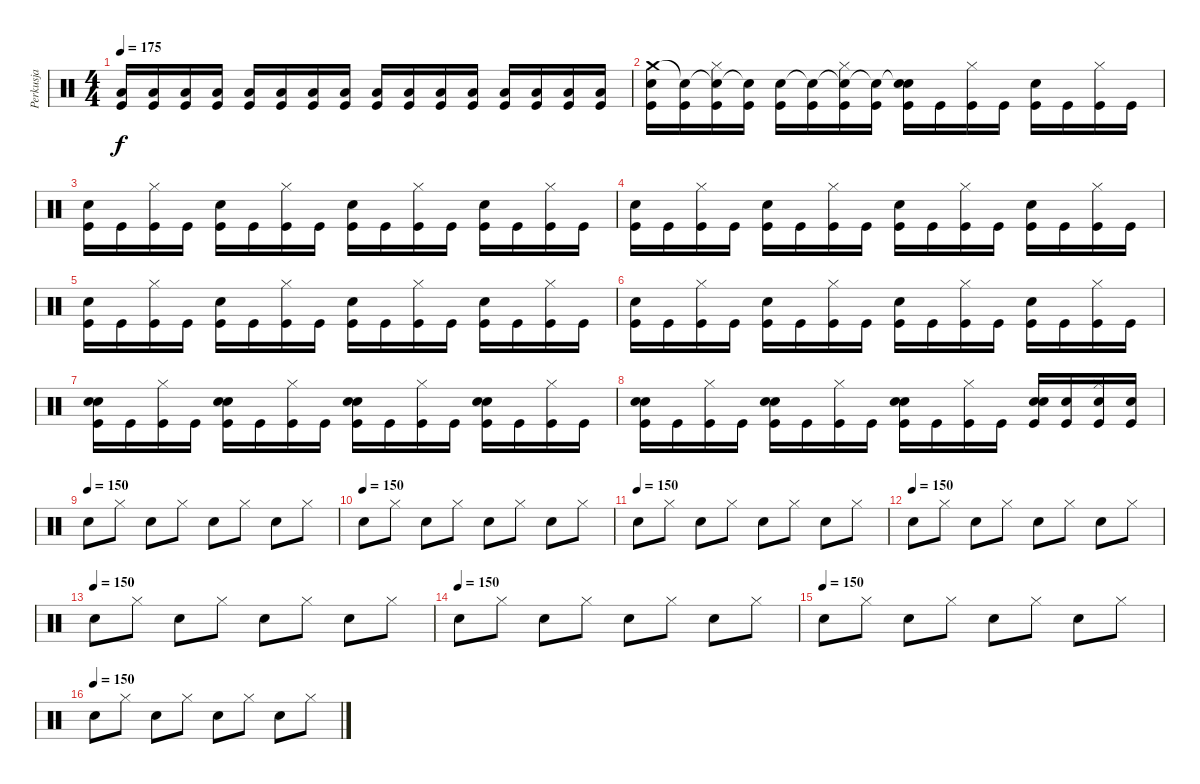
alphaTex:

\track ("Perkusja" "Perkusja") {instrument percussion}
\staff {score}
\articulation defaults
\ts (4 4)
\tempo 175
\clef neutral
\ks c
("Low Tom (hit)" "Kick (hit)").16{dy f} ("Low Tom (hit)" "Kick (hit)").16 ("Low Tom (hit)" "Kick (hit)").16 ("Low Tom (hit)" "Kick (hit)").16 ("Low Tom (hit)" "Kick (hit)").16 ("Low Tom (hit)" "Kick (hit)").16 ("Low Tom (hit)" "Kick (hit)").16 ("Low Tom (hit)" "Kick (hit)").16 ("Low Tom (hit)" "Kick (hit)").16 ("Low Tom (hit)" "Kick (hit)").16 ("Low Tom (hit)" "Kick (hit)").16 ("Low Tom (hit)" "Kick (hit)").16 ("Low Tom (hit)" "Kick (hit)").16 ("Low Tom (hit)" "Kick (hit)").16 ("Low Tom (hit)" "Kick (hit)").16 ("Low Tom (hit)" "Kick (hit)").16 |
("Crash medium (hit)" "Snare (hit) 2" "Kick (hit)").16 ("Snare (hit)"{t} "Kick (hit)").16 ("Snare (hit)"{t} "Hi-Hat (closed)" "Kick (hit)").16 ("Snare (hit)"{t} "Kick (hit)").16 ("Snare (hit) 2" "Kick (hit)").16 ("Snare (hit)"{t} "Kick (hit)").16 ("Snare (hit)"{t} "Hi-Hat (closed)" "Kick (hit)").16 ("Snare (hit)"{t} "Kick (hit)").16 ("Snare (hit)"{t} "Snare (hit) 2" "Kick (hit)").16 "Kick (hit)".16 ("Hi-Hat (closed)" "Kick (hit)").16 "Kick (hit)".16 ("Snare (hit) 2" "Kick (hit)").16 "Kick (hit)".16 ("Hi-Hat (closed)" "Kick (hit)").16 "Kick (hit)".16 |
("Snare (hit) 2" "Kick (hit)").16 "Kick (hit)".16 ("Hi-Hat (closed)" "Kick (hit)").16 "Kick (hit)".16 ("Snare (hit) 2" "Kick (hit)").16 "Kick (hit)".16 ("Hi-Hat (closed)" "Kick (hit)").16 "Kick (hit)".16 ("Snare (hit) 2" "Kick (hit)").16 "Kick (hit)".16 ("Hi-Hat (closed)" "Kick (hit)").16 "Kick (hit)".16 ("Snare (hit) 2" "Kick (hit)").16 "Kick (hit)".16 ("Hi-Hat (closed)" "Kick (hit)").16 "Kick (hit)".16 |
("Snare (hit) 2" "Kick (hit)").16 "Kick (hit)".16 ("Hi-Hat (closed)" "Kick (hit)").16 "Kick (hit)".16 ("Snare (hit) 2" "Kick (hit)").16 "Kick (hit)".16 ("Hi-Hat (closed)" "Kick (hit)").16 "Kick (hit)".16 ("Snare (hit) 2" "Kick (hit)").16 "Kick (hit)".16 ("Hi-Hat (closed)" "Kick (hit)").16 "Kick (hit)".16 ("Snare (hit) 2" "Kick (hit)").16 "Kick (hit)".16 ("Hi-Hat (closed)" "Kick (hit)").16 "Kick (hit)".16 |
("Snare (hit) 2" "Kick (hit)").16 "Kick (hit)".16 ("Hi-Hat (closed)" "Kick (hit)").16 "Kick (hit)".16 ("Snare (hit) 2" "Kick (hit)").16 "Kick (hit)".16 ("Hi-Hat (closed)" "Kick (hit)").16 "Kick (hit)".16 ("Snare (hit) 2" "Kick (hit)").16 "Kick (hit)".16 ("Hi-Hat (closed)" "Kick (hit)").16 "Kick (hit)".16 ("Snare (hit) 2" "Kick (hit)").16 "Kick (hit)".16 ("Hi-Hat (closed)" "Kick (hit)").16 "Kick (hit)".16 |
("Snare (hit) 2" "Kick (hit)").16 "Kick (hit)".16 ("Hi-Hat (closed)" "Kick (hit)").16 "Kick (hit)".16 ("Snare (hit) 2" "Kick (hit)").16 "Kick (hit)".16 ("Hi-Hat (closed)" "Kick (hit)").16 "Kick (hit)".16 ("Snare (hit) 2" "Kick (hit)").16 "Kick (hit)".16 ("Hi-Hat (closed)" "Kick (hit)").16 "Kick (hit)".16 ("Snare (hit) 2" "Kick (hit)").16 "Kick (hit)".16 ("Hi-Hat (closed)" "Kick (hit)").16 "Kick (hit)".16 |
("Snare (hit) 2" "Kick (hit)" "Electric Snare (hit)").16 "Kick (hit)".16 ("Hi-Hat (closed)" "Kick (hit)").16 "Kick (hit)".16 ("Snare (hit) 2" "Kick (hit)" "Electric Snare (hit)").16 "Kick (hit)".16 ("Hi-Hat (closed)" "Kick (hit)").16 "Kick (hit)".16 ("Snare (hit) 2" "Kick (hit)" "Electric Snare (hit)").16 "Kick (hit)".16 ("Hi-Hat (closed)" "Kick (hit)").16 "Kick (hit)".16 ("Snare (hit) 2" "Kick (hit)" "Electric Snare (hit)").16 "Kick (hit)".16 ("Hi-Hat (closed)" "Kick (hit)").16 "Kick (hit)".16 |
("Snare (hit) 2" "Kick (hit)" "Electric Snare (hit)").16 "Kick (hit)".16 ("Hi-Hat (closed)" "Kick (hit)").16 "Kick (hit)".16 ("Snare (hit) 2" "Kick (hit)" "Electric Snare (hit)").16 "Kick (hit)".16 ("Hi-Hat (closed)" "Kick (hit)").16 "Kick (hit)".16 ("Snare (hit) 2" "Kick (hit)" "Electric Snare (hit)").16 "Kick (hit)".16 ("Hi-Hat (closed)" "Kick (hit)").16 "Kick (hit)".16 ("Snare (hit) 2" "Kick (hit)" "Electric Snare (hit)").16 ("Kick (hit)" "Electric Snare (hit)").16 ("Hi-Hat (closed)" "Kick (hit)" "Electric Snare (hit)").16 ("Kick (hit)" "Electric Snare (hit)").16 |
\tempo (150)
"Snare (hit) 2".8 "Hi-Hat (closed)".8 "Snare (hit) 2".8 "Hi-Hat (closed)".8 "Snare (hit) 2".8 "Hi-Hat (closed)".8 "Snare (hit) 2".8 "Hi-Hat (closed)".8 |
\tempo (150)
"Snare (hit) 2".8 "Hi-Hat (closed)".8 "Snare (hit) 2".8 "Hi-Hat (closed)".8 "Snare (hit) 2".8 "Hi-Hat (closed)".8 "Snare (hit) 2".8 "Hi-Hat (closed)".8 |
\tempo (150)
"Snare (hit) 2".8 "Hi-Hat (closed)".8 "Snare (hit) 2".8 "Hi-Hat (closed)".8 "Snare (hit) 2".8 "Hi-Hat (closed)".8 "Snare (hit) 2".8 "Hi-Hat (closed)".8 |
\tempo (150)
"Snare (hit) 2".8 "Hi-Hat (closed)".8 "Snare (hit) 2".8 "Hi-Hat (closed)".8 "Snare (hit) 2".8 "Hi-Hat (closed)".8 "Snare (hit) 2".8 "Hi-Hat (closed)".8 |
\tempo (150)
"Snare (hit) 2".8 "Hi-Hat (closed)".8 "Snare (hit) 2".8 "Hi-Hat (closed)".8 "Snare (hit) 2".8 "Hi-Hat (closed)".8 "Snare (hit) 2".8 "Hi-Hat (closed)".8 |
\tempo (150)
"Snare (hit) 2".8 "Hi-Hat (closed)".8 "Snare (hit) 2".8 "Hi-Hat (closed)".8 "Snare (hit) 2".8 "Hi-Hat (closed)".8 "Snare (hit) 2".8 "Hi-Hat (closed)".8 |
\tempo (150)
"Snare (hit) 2".8 "Hi-Hat (closed)".8 "Snare (hit) 2".8 "Hi-Hat (closed)".8 "Snare (hit) 2".8 "Hi-Hat (closed)".8 "Snare (hit) 2".8 "Hi-Hat (closed)".8 |
\tempo (150)
"Snare (hit) 2".8 "Hi-Hat (closed)".8 "Snare (hit) 2".8 "Hi-Hat (closed)".8 "Snare (hit) 2".8 "Hi-Hat (closed)".8 "Snare (hit) 2".8 "Hi-Hat (closed)".8
